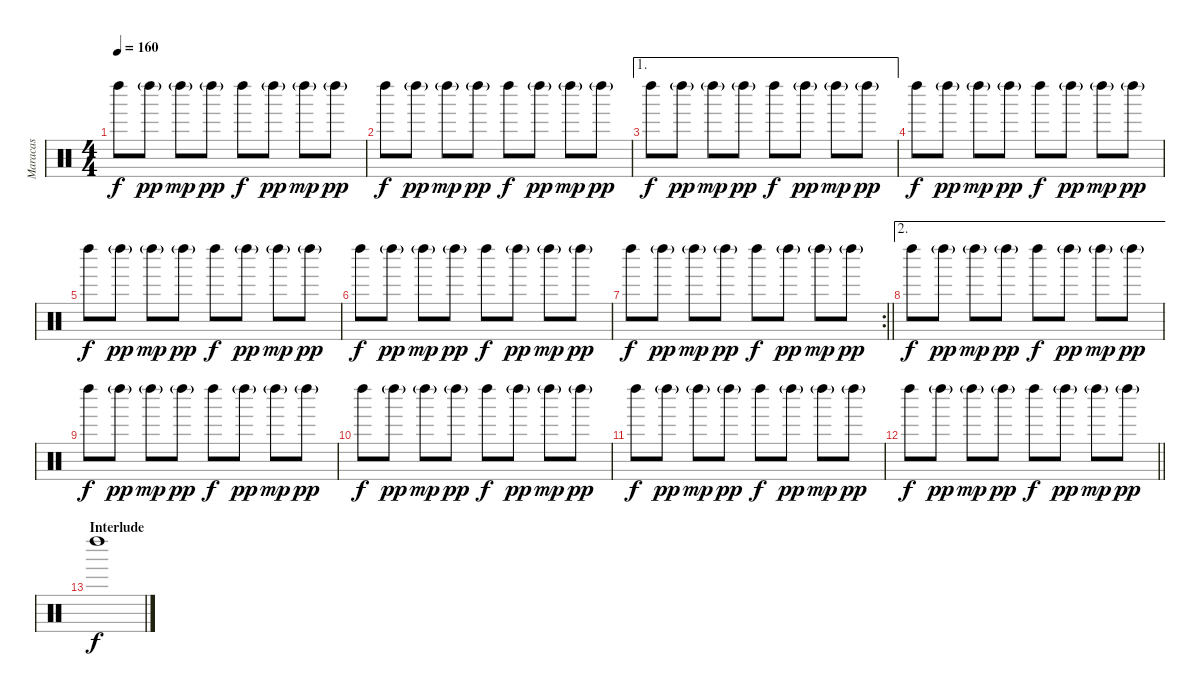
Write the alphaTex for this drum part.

\track ("Maracas" "Maracas") {instrument percussion}
\staff {score}
\articulation defaults
\ts (4 4)
\tempo 160
\clef neutral
\ks c "Left Maraca (hit)".8{dy f} "Left Maraca (hit)"{g}.8{dy pp} "Left Maraca (hit)"{g}.8{dy mp} "Left Maraca (hit)"{g}.8{dy pp} "Left Maraca (hit)".8{dy f} "Left Maraca (hit)"{g}.8{dy pp} "Left Maraca (hit)"{g}.8{dy mp} "Left Maraca (hit)"{g}.8{dy pp}
|
"Left Maraca (hit)".8{dy f} "Left Maraca (hit)"{g}.8{dy pp} "Left Maraca (hit)"{g}.8{dy mp} "Left Maraca (hit)"{g}.8{dy pp} "Left Maraca (hit)".8{dy f} "Left Maraca (hit)"{g}.8{dy pp} "Left Maraca (hit)"{g}.8{dy mp} "Left Maraca (hit)"{g}.8{dy pp} |
\ae 1 "Left Maraca (hit)".8{dy f} "Left Maraca (hit)"{g}.8{dy pp} "Left Maraca (hit)"{g}.8{dy mp} "Left Maraca (hit)"{g}.8{dy pp} "Left Maraca (hit)".8{dy f} "Left Maraca (hit)"{g}.8{dy pp} "Left Maraca (hit)"{g}.8{dy mp} "Left Maraca (hit)"{g}.8{dy pp}
|
"Left Maraca (hit)".8{dy f} "Left Maraca (hit)"{g}.8{dy pp} "Left Maraca (hit)"{g}.8{dy mp} "Left Maraca (hit)"{g}.8{dy pp} "Left Maraca (hit)".8{dy f} "Left Maraca (hit)"{g}.8{dy pp} "Left Maraca (hit)"{g}.8{dy mp} "Left Maraca (hit)"{g}.8{dy pp} |
"Left Maraca (hit)".8{dy f} "Left Maraca (hit)"{g}.8{dy pp} "Left Maraca (hit)"{g}.8{dy mp} "Left Maraca (hit)"{g}.8{dy pp} "Left Maraca (hit)".8{dy f} "Left Maraca (hit)"{g}.8{dy pp} "Left Maraca (hit)"{g}.8{dy mp} "Left Maraca (hit)"{g}.8{dy pp} |
"Left Maraca (hit)".8{dy f} "Left Maraca (hit)"{g}.8{dy pp} "Left Maraca (hit)"{g}.8{dy mp} "Left Maraca (hit)"{g}.8{dy pp} "Left Maraca (hit)".8{dy f} "Left Maraca (hit)"{g}.8{dy pp} "Left Maraca (hit)"{g}.8{dy mp} "Left Maraca (hit)"{g}.8{dy pp} |
\rc 2
\barLineRight lightlight "Left Maraca (hit)".8{dy f} "Left Maraca (hit)"{g}.8{dy pp} "Left Maraca (hit)"{g}.8{dy mp} "Left Maraca (hit)"{g}.8{dy pp} "Left Maraca (hit)".8{dy f} "Left Maraca (hit)"{g}.8{dy pp} "Left Maraca (hit)"{g}.8{dy mp} "Left Maraca (hit)"{g}.8{dy pp}
|
\ae 2 "Left Maraca (hit)".8{dy f} "Left Maraca (hit)"{g}.8{dy pp} "Left Maraca (hit)"{g}.8{dy mp} "Left Maraca (hit)"{g}.8{dy pp} "Left Maraca (hit)".8{dy f} "Left Maraca (hit)"{g}.8{dy pp} "Left Maraca (hit)"{g}.8{dy mp} "Left Maraca (hit)"{g}.8{dy pp}
|
"Left Maraca (hit)".8{dy f} "Left Maraca (hit)"{g}.8{dy pp} "Left Maraca (hit)"{g}.8{dy mp} "Left Maraca (hit)"{g}.8{dy pp} "Left Maraca (hit)".8{dy f} "Left Maraca (hit)"{g}.8{dy pp} "Left Maraca (hit)"{g}.8{dy mp} "Left Maraca (hit)"{g}.8{dy pp} |
"Left Maraca (hit)".8{dy f} "Left Maraca (hit)"{g}.8{dy pp} "Left Maraca (hit)"{g}.8{dy mp} "Left Maraca (hit)"{g}.8{dy pp} "Left Maraca (hit)".8{dy f} "Left Maraca (hit)"{g}.8{dy pp} "Left Maraca (hit)"{g}.8{dy mp} "Left Maraca (hit)"{g}.8{dy pp} |
"Left Maraca (hit)".8{dy f} "Left Maraca (hit)"{g}.8{dy pp} "Left Maraca (hit)"{g}.8{dy mp} "Left Maraca (hit)"{g}.8{dy pp} "Left Maraca (hit)".8{dy f} "Left Maraca (hit)"{g}.8{dy pp} "Left Maraca (hit)"{g}.8{dy mp} "Left Maraca (hit)"{g}.8{dy pp} |
\barLineRight lightlight "Left Maraca (hit)".8{dy f} "Left Maraca (hit)"{g}.8{dy pp} "Left Maraca (hit)"{g}.8{dy mp} "Left Maraca (hit)"{g}.8{dy pp} "Left Maraca (hit)".8{dy f} "Left Maraca (hit)"{g}.8{dy pp} "Left Maraca (hit)"{g}.8{dy mp} "Left Maraca (hit)"{g}.8{dy pp}
|
\section ("" "Interlude")
"Left Maraca (hit)".1{dy f}
